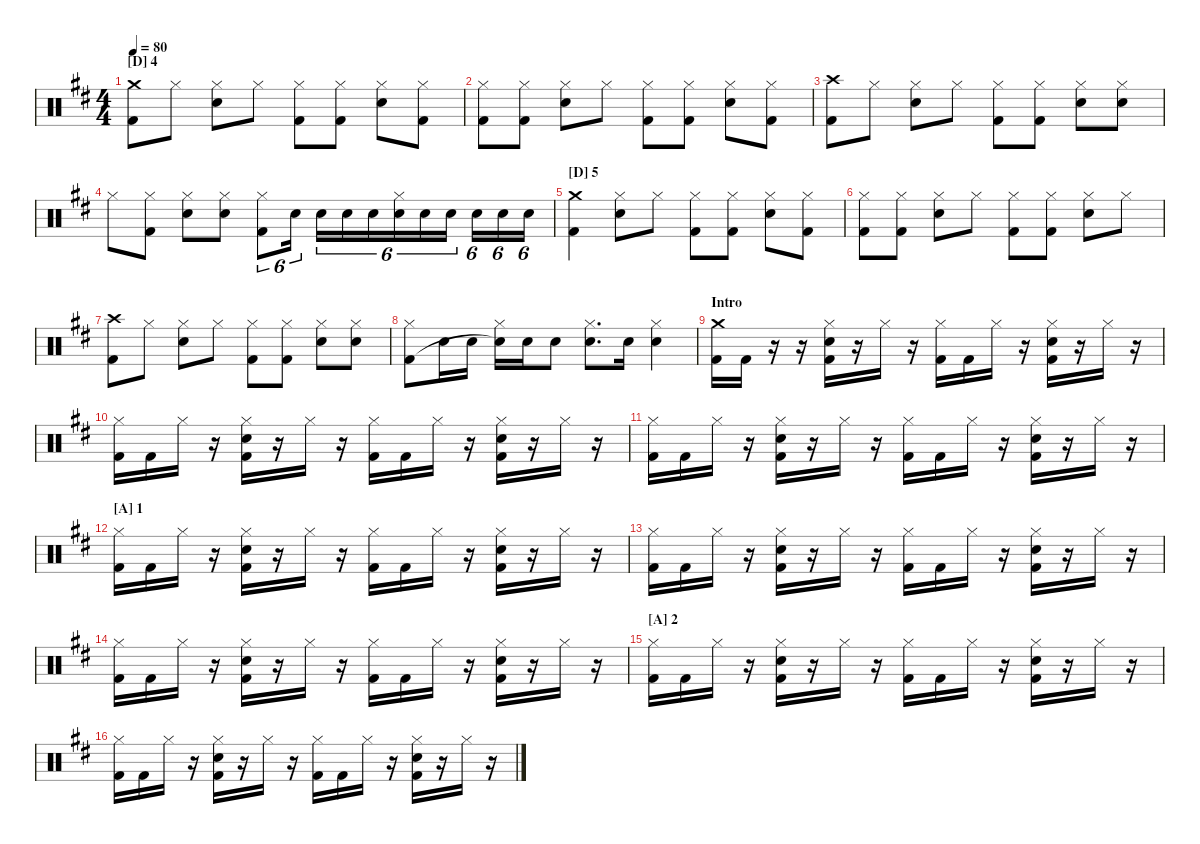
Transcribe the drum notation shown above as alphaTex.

\hideDynamics
\bracketExtendMode nobrackets
\singleTrackTrackNamePolicy hidden
\multiTrackTrackNamePolicy hidden
\otherSystemsTrackNameOrientation horizontal
\track ("Drumkit" "Drums") {instrument percussion}
\staff {score}
\articulation defaults
\ts (4 4)
\section ("D" "4")
\tempo 80
\clef neutral
\ks d
("Crash medium (hit)"{acc forcenatural} "Kick (hit) 2"{acc forcenatural}).8{dy f beam Down} "Hi-Hat (closed)"{acc forcenatural}.8{beam Down} ("Hi-Hat (closed)"{acc forcenatural} "Snare (hit) 2"{acc forcenatural}).8{beam Down} "Hi-Hat (closed)"{acc forcenatural}.8{beam Down} ("Hi-Hat (closed)"{acc forcenatural} "Kick (hit) 2"{acc forcenatural}).8{beam Down} ("Hi-Hat (closed)"{acc forcenatural} "Kick (hit) 2"{acc forcenatural}).8{beam Down} ("Hi-Hat (closed)"{acc forcenatural} "Snare (hit) 2"{acc forcenatural}).8{beam Down} ("Hi-Hat (closed)"{acc forcenatural} "Kick (hit) 2"{acc forcenatural}).8{beam Down} |
("Hi-Hat (closed)"{acc forcenatural} "Kick (hit) 2"{acc forcenatural}).8{beam Down} ("Hi-Hat (closed)"{acc forcenatural} "Kick (hit) 2"{acc forcenatural}).8{beam Down} ("Hi-Hat (closed)"{acc forcenatural} "Snare (hit) 2"{acc forcenatural}).8{beam Down} "Hi-Hat (closed)"{acc forcenatural}.8{beam Down} ("Hi-Hat (closed)"{acc forcenatural} "Kick (hit) 2"{acc forcenatural}).8{beam Down} ("Hi-Hat (closed)"{acc forcenatural} "Kick (hit) 2"{acc forcenatural}).8{beam Down} ("Hi-Hat (closed)"{acc forcenatural} "Snare (hit) 2"{acc forcenatural}).8{beam Down} ("Hi-Hat (closed)"{acc forcenatural} "Kick (hit) 2"{acc forcenatural}).8{beam Down} |
("Crash high (hit)"{acc forcenatural} "Kick (hit) 2"{acc forcenatural}).8{beam Down} "Hi-Hat (closed)"{acc forcenatural}.8{beam Down} ("Hi-Hat (closed)"{acc forcenatural} "Snare (hit) 2"{acc forcenatural}).8{beam Down} "Hi-Hat (closed)"{acc forcenatural}.8{beam Down} ("Hi-Hat (closed)"{acc forcenatural} "Kick (hit) 2"{acc forcenatural}).8{beam Down} ("Hi-Hat (closed)"{acc forcenatural} "Kick (hit) 2"{acc forcenatural}).8{beam Down} ("Hi-Hat (closed)"{acc forcenatural} "Snare (hit) 2"{acc forcenatural}).8{beam Down} ("Hi-Hat (closed)"{acc forcenatural} "Snare (hit) 2"{acc forcenatural}).8{beam Down} |
"Hi-Hat (closed)"{acc forcenatural}.8{beam Down} ("Hi-Hat (closed)"{acc forcenatural} "Kick (hit) 2"{acc forcenatural}).8{beam Down} ("Hi-Hat (closed)"{acc forcenatural} "Snare (hit) 2"{acc forcenatural}).8{beam Down} ("Hi-Hat (closed)"{acc forcenatural} "Snare (hit) 2"{acc forcenatural}).8{beam Down} ("Hi-Hat (closed)"{acc forcenatural} "Kick (hit) 2"{acc forcenatural}).8{tu (6 4) beam Down} "Snare (hit) 2"{acc forcenatural}.16{tu (6 4) beam Down} "Snare (hit) 2"{acc forcenatural}.16{tu (6 4) beam Down} "Snare (hit) 2"{acc forcenatural}.16{tu (6 4) beam Down} "Snare (hit) 2"{acc forcenatural}.16{tu (6 4) beam Down} ("Hi-Hat (closed)"{acc forcenatural} "Snare (hit) 2"{acc forcenatural}).16{tu (6 4) beam Down} "Snare (hit) 2"{acc forcenatural}.16{tu (6 4) beam Down} "Snare (hit) 2"{acc forcenatural}.16{tu (6 4) beam Down} "Snare (hit) 2"{acc forcenatural}.16{tu (6 4) beam Down} "Snare (hit) 2"{acc forcenatural}.16{tu (6 4) beam Down} "Snare (hit) 2"{acc forcenatural}.16{tu (6 4) beam Down} |
\section ("D" "5")
("Crash medium (hit)"{acc forcenatural} "Kick (hit) 2"{acc forcenatural}).4{beam Down} ("Hi-Hat (closed)"{acc forcenatural} "Snare (hit) 2"{acc forcenatural}).8{beam Down} "Hi-Hat (closed)"{acc forcenatural}.8{beam Down} ("Hi-Hat (closed)"{acc forcenatural} "Kick (hit) 2"{acc forcenatural}).8{beam Down} ("Hi-Hat (closed)"{acc forcenatural} "Kick (hit) 2"{acc forcenatural}).8{beam Down} ("Hi-Hat (closed)"{acc forcenatural} "Snare (hit) 2"{acc forcenatural}).8{beam Down} ("Hi-Hat (closed)"{acc forcenatural} "Kick (hit) 2"{acc forcenatural}).8{beam Down} |
("Hi-Hat (closed)"{acc forcenatural} "Kick (hit) 2"{acc forcenatural}).8{beam Down} ("Hi-Hat (closed)"{acc forcenatural} "Kick (hit) 2"{acc forcenatural}).8{beam Down} ("Hi-Hat (closed)"{acc forcenatural} "Snare (hit) 2"{acc forcenatural}).8{beam Down} "Hi-Hat (closed)"{acc forcenatural}.8{beam Down} ("Hi-Hat (closed)"{acc forcenatural} "Kick (hit) 2"{acc forcenatural}).8{beam Down} ("Hi-Hat (closed)"{acc forcenatural} "Kick (hit) 2"{acc forcenatural}).8{beam Down} ("Hi-Hat (closed)"{acc forcenatural} "Snare (hit) 2"{acc forcenatural}).8{beam Down} "Hi-Hat (closed)"{acc forcenatural}.8{beam Down} |
("Crash high (hit)"{acc forcenatural} "Kick (hit) 2"{acc forcenatural}).8{beam Down} "Hi-Hat (closed)"{acc forcenatural}.8{beam Down} ("Hi-Hat (closed)"{acc forcenatural} "Snare (hit) 2"{acc forcenatural}).8{beam Down} "Hi-Hat (closed)"{acc forcenatural}.8{beam Down} ("Hi-Hat (closed)"{acc forcenatural} "Kick (hit) 2"{acc forcenatural}).8{beam Down} ("Hi-Hat (closed)"{acc forcenatural} "Kick (hit) 2"{acc forcenatural}).8{beam Down} ("Hi-Hat (closed)"{acc forcenatural} "Snare (hit) 2"{acc forcenatural}).8{beam Down} ("Hi-Hat (closed)"{acc forcenatural} "Snare (hit) 2"{acc forcenatural}).8{beam Down} |
("Hi-Hat (closed)"{acc forcenatural} "Kick (hit) 2"{acc forcenatural}).8{beam Down} "Snare (hit) 2"{acc forcenatural}.16{beam Down} "Snare (hit) 2"{acc forcenatural}.16{beam Down} ("Hi-Hat (closed)"{acc forcenatural} "Snare (hit) 2"{t acc forcenatural}).16{beam Down} "Snare (hit) 2"{acc forcenatural}.16{beam Down} "Snare (hit) 2"{acc forcenatural}.8{beam Down} ("Hi-Hat (closed)"{acc forcenatural} "Snare (hit) 2"{acc forcenatural}).8{d beam Down} "Snare (hit) 2"{acc forcenatural}.16{beam Down} ("Hi-Hat (closed)"{acc forcenatural} "Snare (hit) 2"{acc forcenatural}).4{beam Down} |
\section ("" "Intro")
("Crash medium (hit)"{acc forcenatural} "Kick (hit) 2"{acc forcenatural}).16{beam Down} "Kick (hit) 2"{acc forcenatural}.16{beam Down} r.16{beam Down} r.16{beam Down} ("Hi-Hat (closed)"{acc forcenatural} "Snare (hit) 2"{acc forcenatural} "Kick (hit) 2"{acc forcenatural}).16{beam Down} r.16{beam Down} "Hi-Hat (closed)"{acc forcenatural}.16{beam Down} r.16{beam Down} ("Hi-Hat (closed)"{acc forcenatural} "Kick (hit) 2"{acc forcenatural}).16{beam Down} "Kick (hit) 2"{acc forcenatural}.16{beam Down} "Hi-Hat (closed)"{acc forcenatural}.16{beam Down} r.16{beam Down} ("Hi-Hat (closed)"{acc forcenatural} "Snare (hit) 2"{acc forcenatural} "Kick (hit) 2"{acc forcenatural}).16{beam Down} r.16{beam Down} "Hi-Hat (closed)"{acc forcenatural}.16{beam Down} r.16{beam Down} |
("Hi-Hat (closed)"{acc forcenatural} "Kick (hit) 2"{acc forcenatural}).16{beam Down} "Kick (hit) 2"{acc forcenatural}.16{beam Down} "Hi-Hat (closed)"{acc forcenatural}.16{beam Down} r.16{beam Down} ("Hi-Hat (closed)"{acc forcenatural} "Snare (hit) 2"{acc forcenatural} "Kick (hit) 2"{acc forcenatural}).16{beam Down} r.16{beam Down} "Hi-Hat (closed)"{acc forcenatural}.16{beam Down} r.16{beam Down} ("Hi-Hat (closed)"{acc forcenatural} "Kick (hit) 2"{acc forcenatural}).16{beam Down} "Kick (hit) 2"{acc forcenatural}.16{beam Down} "Hi-Hat (closed)"{acc forcenatural}.16{beam Down} r.16{beam Down} ("Hi-Hat (closed)"{acc forcenatural} "Snare (hit) 2"{acc forcenatural} "Kick (hit) 2"{acc forcenatural}).16{beam Down} r.16{beam Down} "Hi-Hat (closed)"{acc forcenatural}.16{beam Down} r.16{beam Down} |
("Hi-Hat (closed)"{acc forcenatural} "Kick (hit) 2"{acc forcenatural}).16{beam Down} "Kick (hit) 2"{acc forcenatural}.16{beam Down} "Hi-Hat (closed)"{acc forcenatural}.16{beam Down} r.16{beam Down} ("Hi-Hat (closed)"{acc forcenatural} "Snare (hit) 2"{acc forcenatural} "Kick (hit) 2"{acc forcenatural}).16{beam Down} r.16{beam Down} "Hi-Hat (closed)"{acc forcenatural}.16{beam Down} r.16{beam Down} ("Hi-Hat (closed)"{acc forcenatural} "Kick (hit) 2"{acc forcenatural}).16{beam Down} "Kick (hit) 2"{acc forcenatural}.16{beam Down} "Hi-Hat (closed)"{acc forcenatural}.16{beam Down} r.16{beam Down} ("Hi-Hat (closed)"{acc forcenatural} "Snare (hit) 2"{acc forcenatural} "Kick (hit) 2"{acc forcenatural}).16{beam Down} r.16{beam Down} "Hi-Hat (closed)"{acc forcenatural}.16{beam Down} r.16{beam Down} |
\section ("A" "1")
("Hi-Hat (closed)"{acc forcenatural} "Kick (hit) 2"{acc forcenatural}).16{beam Down} "Kick (hit) 2"{acc forcenatural}.16{beam Down} "Hi-Hat (closed)"{acc forcenatural}.16{beam Down} r.16{beam Down} ("Hi-Hat (closed)"{acc forcenatural} "Snare (hit) 2"{acc forcenatural} "Kick (hit) 2"{acc forcenatural}).16{beam Down} r.16{beam Down} "Hi-Hat (closed)"{acc forcenatural}.16{beam Down} r.16{beam Down} ("Hi-Hat (closed)"{acc forcenatural} "Kick (hit) 2"{acc forcenatural}).16{beam Down} "Kick (hit) 2"{acc forcenatural}.16{beam Down} "Hi-Hat (closed)"{acc forcenatural}.16{beam Down} r.16{beam Down} ("Hi-Hat (closed)"{acc forcenatural} "Snare (hit) 2"{acc forcenatural} "Kick (hit) 2"{acc forcenatural}).16{beam Down} r.16{beam Down} "Hi-Hat (closed)"{acc forcenatural}.16{beam Down} r.16{beam Down} |
("Hi-Hat (closed)"{acc forcenatural} "Kick (hit) 2"{acc forcenatural}).16{beam Down} "Kick (hit) 2"{acc forcenatural}.16{beam Down} "Hi-Hat (closed)"{acc forcenatural}.16{beam Down} r.16{beam Down} ("Hi-Hat (closed)"{acc forcenatural} "Snare (hit) 2"{acc forcenatural} "Kick (hit) 2"{acc forcenatural}).16{beam Down} r.16{beam Down} "Hi-Hat (closed)"{acc forcenatural}.16{beam Down} r.16{beam Down} ("Hi-Hat (closed)"{acc forcenatural} "Kick (hit) 2"{acc forcenatural}).16{beam Down} "Kick (hit) 2"{acc forcenatural}.16{beam Down} "Hi-Hat (closed)"{acc forcenatural}.16{beam Down} r.16{beam Down} ("Hi-Hat (closed)"{acc forcenatural} "Snare (hit) 2"{acc forcenatural} "Kick (hit) 2"{acc forcenatural}).16{beam Down} r.16{beam Down} "Hi-Hat (closed)"{acc forcenatural}.16{beam Down} r.16{beam Down} |
("Hi-Hat (closed)"{acc forcenatural} "Kick (hit) 2"{acc forcenatural}).16{beam Down} "Kick (hit) 2"{acc forcenatural}.16{beam Down} "Hi-Hat (closed)"{acc forcenatural}.16{beam Down} r.16{beam Down} ("Hi-Hat (closed)"{acc forcenatural} "Snare (hit) 2"{acc forcenatural} "Kick (hit) 2"{acc forcenatural}).16{beam Down} r.16{beam Down} "Hi-Hat (closed)"{acc forcenatural}.16{beam Down} r.16{beam Down} ("Hi-Hat (closed)"{acc forcenatural} "Kick (hit) 2"{acc forcenatural}).16{beam Down} "Kick (hit) 2"{acc forcenatural}.16{beam Down} "Hi-Hat (closed)"{acc forcenatural}.16{beam Down} r.16{beam Down} ("Hi-Hat (closed)"{acc forcenatural} "Snare (hit) 2"{acc forcenatural} "Kick (hit) 2"{acc forcenatural}).16{beam Down} r.16{beam Down} "Hi-Hat (closed)"{acc forcenatural}.16{beam Down} r.16{beam Down} |
\section ("A" "2")
("Hi-Hat (closed)"{acc forcenatural} "Kick (hit) 2"{acc forcenatural}).16{beam Down} "Kick (hit) 2"{acc forcenatural}.16{beam Down} "Hi-Hat (closed)"{acc forcenatural}.16{beam Down} r.16{beam Down} ("Hi-Hat (closed)"{acc forcenatural} "Snare (hit) 2"{acc forcenatural} "Kick (hit) 2"{acc forcenatural}).16{beam Down} r.16{beam Down} "Hi-Hat (closed)"{acc forcenatural}.16{beam Down} r.16{beam Down} ("Hi-Hat (closed)"{acc forcenatural} "Kick (hit) 2"{acc forcenatural}).16{beam Down} "Kick (hit) 2"{acc forcenatural}.16{beam Down} "Hi-Hat (closed)"{acc forcenatural}.16{beam Down} r.16{beam Down} ("Hi-Hat (closed)"{acc forcenatural} "Snare (hit) 2"{acc forcenatural} "Kick (hit) 2"{acc forcenatural}).16{beam Down} r.16{beam Down} "Hi-Hat (closed)"{acc forcenatural}.16{beam Down} r.16{beam Down} |
("Hi-Hat (closed)"{acc forcenatural} "Kick (hit) 2"{acc forcenatural}).16{beam Down} "Kick (hit) 2"{acc forcenatural}.16{beam Down} "Hi-Hat (closed)"{acc forcenatural}.16{beam Down} r.16{beam Down} ("Hi-Hat (closed)"{acc forcenatural} "Snare (hit) 2"{acc forcenatural} "Kick (hit) 2"{acc forcenatural}).16{beam Down} r.16{beam Down} "Hi-Hat (closed)"{acc forcenatural}.16{beam Down} r.16{beam Down} ("Hi-Hat (closed)"{acc forcenatural} "Kick (hit) 2"{acc forcenatural}).16{beam Down} "Kick (hit) 2"{acc forcenatural}.16{beam Down} "Hi-Hat (closed)"{acc forcenatural}.16{beam Down} r.16{beam Down} ("Hi-Hat (closed)"{acc forcenatural} "Snare (hit) 2"{acc forcenatural} "Kick (hit) 2"{acc forcenatural}).16{beam Down} r.16{beam Down} "Hi-Hat (closed)"{acc forcenatural}.16{beam Down} r.16{beam Down}
